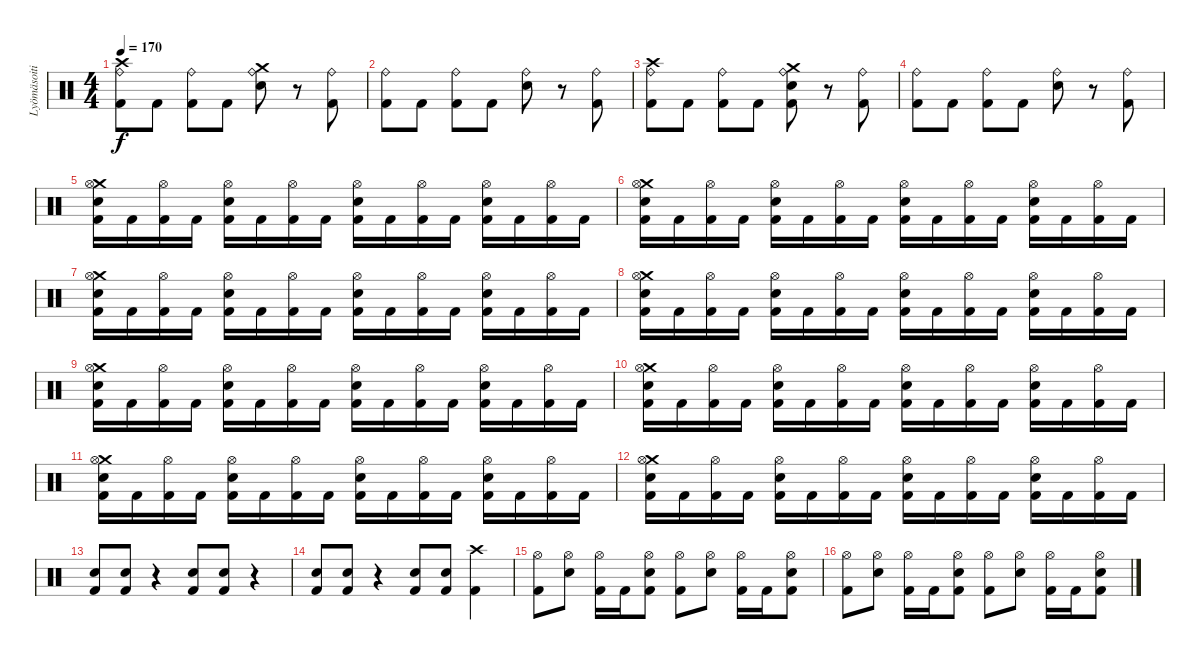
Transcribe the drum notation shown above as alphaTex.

\track ("Lyömäsoitin" "Lyömäsoiti") {instrument percussion}
\staff {score}
\articulation defaults
\ts (4 4)
\tempo 170
\clef neutral
\ks c
("Ride (bell)" "Kick (hit) 2" "Crash high (hit)").8{dy f} "Kick (hit) 2".8 ("Ride (bell)" "Kick (hit) 2").8 "Kick (hit) 2".8 ("Ride (bell)" "Snare (hit) 2" "Crash medium (hit)").8 r.8 ("Ride (bell)" "Kick (hit) 2").8 |
("Ride (bell)" "Kick (hit) 2").8 "Kick (hit) 2".8 ("Ride (bell)" "Kick (hit) 2").8 "Kick (hit) 2".8 ("Ride (bell)" "Snare (hit) 2").8 r.8 ("Ride (bell)" "Kick (hit) 2").8 |
("Ride (bell)" "Kick (hit) 2" "Crash high (hit)").8 "Kick (hit) 2".8 ("Ride (bell)" "Kick (hit) 2").8 "Kick (hit) 2".8 ("Ride (bell)" "Kick (hit) 2" "Snare (hit) 2" "Crash medium (hit)").8 r.8 ("Ride (bell)" "Kick (hit) 2").8 |
("Ride (bell)" "Kick (hit) 2").8 "Kick (hit) 2".8 ("Ride (bell)" "Kick (hit) 2").8 "Kick (hit) 2".8 ("Ride (bell)" "Snare (hit) 2").8 r.8 ("Ride (bell)" "Kick (hit) 2").8 |
("Kick (hit) 2" "Snare (hit) 2" "Crash medium (hit)" "Hi-Hat (open)").16 "Kick (hit) 2".16 ("Kick (hit) 2" "Hi-Hat (open)").16 "Kick (hit) 2".16 ("Kick (hit) 2" "Snare (hit) 2" "Hi-Hat (open)").16 "Kick (hit) 2".16 ("Kick (hit) 2" "Hi-Hat (open)").16 "Kick (hit) 2".16 ("Kick (hit) 2" "Snare (hit) 2" "Hi-Hat (open)").16 "Kick (hit) 2".16 ("Kick (hit) 2" "Hi-Hat (open)").16 "Kick (hit) 2".16 ("Kick (hit) 2" "Snare (hit) 2" "Hi-Hat (open)").16 "Kick (hit) 2".16 ("Kick (hit) 2" "Hi-Hat (open)").16 "Kick (hit) 2".16 |
("Kick (hit) 2" "Snare (hit) 2" "Crash medium (hit)" "Hi-Hat (open)").16 "Kick (hit) 2".16 ("Kick (hit) 2" "Hi-Hat (open)").16 "Kick (hit) 2".16 ("Kick (hit) 2" "Snare (hit) 2" "Hi-Hat (open)").16 "Kick (hit) 2".16 ("Kick (hit) 2" "Hi-Hat (open)").16 "Kick (hit) 2".16 ("Kick (hit) 2" "Snare (hit) 2" "Hi-Hat (open)").16 "Kick (hit) 2".16 ("Kick (hit) 2" "Hi-Hat (open)").16 "Kick (hit) 2".16 ("Kick (hit) 2" "Snare (hit) 2" "Hi-Hat (open)").16 "Kick (hit) 2".16 ("Kick (hit) 2" "Hi-Hat (open)").16 "Kick (hit) 2".16 |
("Kick (hit) 2" "Snare (hit) 2" "Crash medium (hit)" "Hi-Hat (open)").16 "Kick (hit) 2".16 ("Kick (hit) 2" "Hi-Hat (open)").16 "Kick (hit) 2".16 ("Kick (hit) 2" "Snare (hit) 2" "Hi-Hat (open)").16 "Kick (hit) 2".16 ("Kick (hit) 2" "Hi-Hat (open)").16 "Kick (hit) 2".16 ("Kick (hit) 2" "Snare (hit) 2" "Hi-Hat (open)").16 "Kick (hit) 2".16 ("Kick (hit) 2" "Hi-Hat (open)").16 "Kick (hit) 2".16 ("Kick (hit) 2" "Snare (hit) 2" "Hi-Hat (open)").16 "Kick (hit) 2".16 ("Kick (hit) 2" "Hi-Hat (open)").16 "Kick (hit) 2".16 |
("Kick (hit) 2" "Snare (hit) 2" "Crash medium (hit)" "Hi-Hat (open)").16 "Kick (hit) 2".16 ("Kick (hit) 2" "Hi-Hat (open)").16 "Kick (hit) 2".16 ("Kick (hit) 2" "Snare (hit) 2" "Hi-Hat (open)").16 "Kick (hit) 2".16 ("Kick (hit) 2" "Hi-Hat (open)").16 "Kick (hit) 2".16 ("Kick (hit) 2" "Snare (hit) 2" "Hi-Hat (open)").16 "Kick (hit) 2".16 ("Kick (hit) 2" "Hi-Hat (open)").16 "Kick (hit) 2".16 ("Kick (hit) 2" "Snare (hit) 2" "Hi-Hat (open)").16 "Kick (hit) 2".16 ("Kick (hit) 2" "Hi-Hat (open)").16 "Kick (hit) 2".16 |
("Kick (hit) 2" "Snare (hit) 2" "Crash medium (hit)" "Hi-Hat (open)").16 "Kick (hit) 2".16 ("Kick (hit) 2" "Hi-Hat (open)").16 "Kick (hit) 2".16 ("Kick (hit) 2" "Snare (hit) 2" "Hi-Hat (open)").16 "Kick (hit) 2".16 ("Kick (hit) 2" "Hi-Hat (open)").16 "Kick (hit) 2".16 ("Kick (hit) 2" "Snare (hit) 2" "Hi-Hat (open)").16 "Kick (hit) 2".16 ("Kick (hit) 2" "Hi-Hat (open)").16 "Kick (hit) 2".16 ("Kick (hit) 2" "Snare (hit) 2" "Hi-Hat (open)").16 "Kick (hit) 2".16 ("Kick (hit) 2" "Hi-Hat (open)").16 "Kick (hit) 2".16 |
("Kick (hit) 2" "Snare (hit) 2" "Crash medium (hit)" "Hi-Hat (open)").16 "Kick (hit) 2".16 ("Kick (hit) 2" "Hi-Hat (open)").16 "Kick (hit) 2".16 ("Kick (hit) 2" "Snare (hit) 2" "Hi-Hat (open)").16 "Kick (hit) 2".16 ("Kick (hit) 2" "Hi-Hat (open)").16 "Kick (hit) 2".16 ("Kick (hit) 2" "Snare (hit) 2" "Hi-Hat (open)").16 "Kick (hit) 2".16 ("Kick (hit) 2" "Hi-Hat (open)").16 "Kick (hit) 2".16 ("Kick (hit) 2" "Snare (hit) 2" "Hi-Hat (open)").16 "Kick (hit) 2".16 ("Kick (hit) 2" "Hi-Hat (open)").16 "Kick (hit) 2".16 |
("Kick (hit) 2" "Snare (hit) 2" "Crash medium (hit)" "Hi-Hat (open)").16 "Kick (hit) 2".16 ("Kick (hit) 2" "Hi-Hat (open)").16 "Kick (hit) 2".16 ("Kick (hit) 2" "Snare (hit) 2" "Hi-Hat (open)").16 "Kick (hit) 2".16 ("Kick (hit) 2" "Hi-Hat (open)").16 "Kick (hit) 2".16 ("Kick (hit) 2" "Snare (hit) 2" "Hi-Hat (open)").16 "Kick (hit) 2".16 ("Kick (hit) 2" "Hi-Hat (open)").16 "Kick (hit) 2".16 ("Kick (hit) 2" "Snare (hit) 2" "Hi-Hat (open)").16 "Kick (hit) 2".16 ("Kick (hit) 2" "Hi-Hat (open)").16 "Kick (hit) 2".16 |
("Kick (hit) 2" "Snare (hit) 2" "Crash medium (hit)" "Hi-Hat (open)").16 "Kick (hit) 2".16 ("Kick (hit) 2" "Hi-Hat (open)").16 "Kick (hit) 2".16 ("Kick (hit) 2" "Snare (hit) 2" "Hi-Hat (open)").16 "Kick (hit) 2".16 ("Kick (hit) 2" "Hi-Hat (open)").16 "Kick (hit) 2".16 ("Kick (hit) 2" "Snare (hit) 2" "Hi-Hat (open)").16 "Kick (hit) 2".16 ("Kick (hit) 2" "Hi-Hat (open)").16 "Kick (hit) 2".16 ("Kick (hit) 2" "Snare (hit) 2" "Hi-Hat (open)").16 "Kick (hit) 2".16 ("Kick (hit) 2" "Hi-Hat (open)").16 "Kick (hit) 2".16 |
("Kick (hit) 2" "Snare (hit) 2").8 ("Kick (hit) 2" "Snare (hit) 2").8 r.4 ("Kick (hit) 2" "Snare (hit) 2").8 ("Kick (hit) 2" "Snare (hit) 2").8 r.4 |
("Kick (hit) 2" "Snare (hit) 2").8 ("Kick (hit) 2" "Snare (hit) 2").8 r.4 ("Kick (hit) 2" "Snare (hit) 2").8 ("Kick (hit) 2" "Snare (hit) 2").8 ("Kick (hit) 2" "Crash high (hit)").4 |
("Kick (hit) 2" "Hi-Hat (open)").8 ("Snare (hit) 2" "Hi-Hat (open)").8 ("Kick (hit) 2" "Hi-Hat (open)").16 "Kick (hit) 2".16 ("Kick (hit) 2" "Snare (hit) 2" "Hi-Hat (open)").8 ("Kick (hit) 2" "Hi-Hat (open)").8 ("Snare (hit) 2" "Hi-Hat (open)").8 ("Kick (hit) 2" "Hi-Hat (open)").16 "Kick (hit) 2".16 ("Kick (hit) 2" "Snare (hit) 2" "Hi-Hat (open)").8 |
("Kick (hit) 2" "Hi-Hat (open)").8 ("Snare (hit) 2" "Hi-Hat (open)").8 ("Kick (hit) 2" "Hi-Hat (open)").16 "Kick (hit) 2".16 ("Kick (hit) 2" "Snare (hit) 2" "Hi-Hat (open)").8 ("Kick (hit) 2" "Hi-Hat (open)").8 ("Snare (hit) 2" "Hi-Hat (open)").8 ("Kick (hit) 2" "Hi-Hat (open)").16 "Kick (hit) 2".16 ("Kick (hit) 2" "Snare (hit) 2" "Hi-Hat (open)").8
